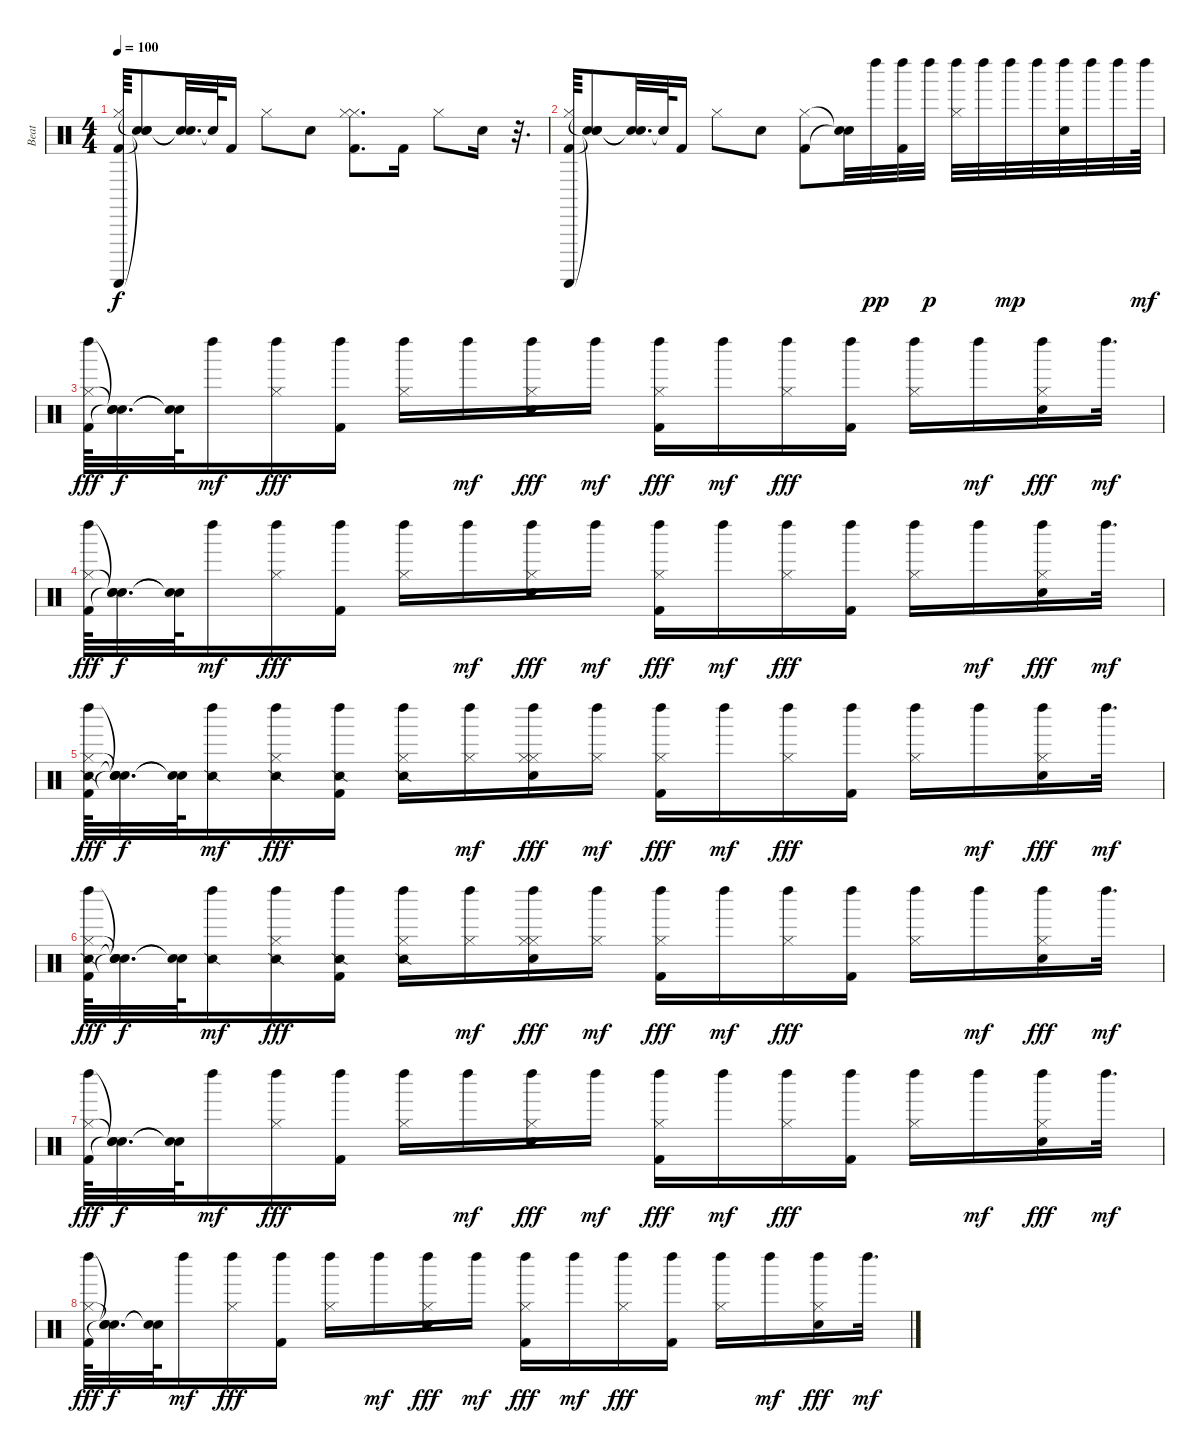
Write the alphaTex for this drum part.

\track ("Beat" "Beat") {instrument percussion}
\staff {score}
\articulation defaults
\ts (4 4)
\tempo 100
\clef neutral
\ks c
("Hi-Hat (closed)" "Kick (hit) 2" "Guiro (scrap-return)").64{dy f} ("Snare (hit)"{t} "Snare (hit)"{t} "Snare (hit)"{t}).8 ("Snare (hit)"{t} "Snare (hit)"{t}).32{d} "Snare (hit)"{t}.64 "Kick (hit) 2".16 "Hi-Hat (closed)".8 "Electric Snare (hit)".8 ("Hi-Hat (closed)" "Hi-Hat (closed)" "Kick (hit) 2").8{d} "Kick (hit) 2".16 "Hi-Hat (closed)".8 "Electric Snare (hit)".16 r.32{d} |
("Hi-Hat (closed)" "Kick (hit) 2" "Guiro (scrap-return)").64 ("Snare (hit)"{t} "Snare (hit)"{t} "Snare (hit)"{t}).8 ("Snare (hit)"{t} "Snare (hit)"{t}).32{d} "Snare (hit)"{t}.64 "Kick (hit) 2".16 "Hi-Hat (closed)".8 "Electric Snare (hit)".8 ("Hi-Hat (closed)" "Kick (hit) 2").8 ("Snare (hit)"{t} "Snare (hit)"{t}).32 "Left Maraca (hit)".32{dy pp} ("Left Maraca (hit)" "Kick (hit) 2").32 "Left Maraca (hit)".32{dy p} ("Left Maraca (hit)" "Hi-Hat (closed)").32 "Left Maraca (hit)".32 "Left Maraca (hit)".32{dy mp} "Left Maraca (hit)".32 ("Left Maraca (hit)" "Electric Snare (hit)").32 "Left Maraca (hit)".32 "Left Maraca (hit)".32 "Left Maraca (hit)".64{dy mf} |
("Left Maraca (hit)" "Hi-Hat (closed)" "Kick (hit) 2").64{dy fff} ("Snare (hit)"{t} "Snare (hit)"{t} "Snare (hit)"{t}).32{d dy f} ("Snare (hit)"{t} "Snare (hit)"{t}).64 "Left Maraca (hit)".16{dy mf} ("Left Maraca (hit)" "Hi-Hat (closed)").16{dy fff} ("Left Maraca (hit)" "Kick (hit) 2").16 ("Left Maraca (hit)" "Hi-Hat (closed)").16 "Left Maraca (hit)".16{dy mf} ("Left Maraca (hit)" "Hi-Hat (closed)" "Electric Snare (hit)").16{dy fff} "Left Maraca (hit)".16{dy mf} ("Left Maraca (hit)" "Hi-Hat (closed)" "Kick (hit) 2").16{dy fff} "Left Maraca (hit)".16{dy mf} ("Left Maraca (hit)" "Hi-Hat (closed)").16{dy fff} ("Left Maraca (hit)" "Kick (hit) 2").16 ("Left Maraca (hit)" "Hi-Hat (closed)").16 "Left Maraca (hit)".16{dy mf} ("Left Maraca (hit)" "Hi-Hat (closed)" "Electric Snare (hit)").16{dy fff} "Left Maraca (hit)".32{d dy mf} |
("Left Maraca (hit)" "Hi-Hat (closed)" "Kick (hit) 2").64{dy fff} ("Snare (hit)"{t} "Snare (hit)"{t} "Snare (hit)"{t}).32{d dy f} ("Snare (hit)"{t} "Snare (hit)"{t}).64 "Left Maraca (hit)".16{dy mf} ("Left Maraca (hit)" "Hi-Hat (closed)").16{dy fff} ("Left Maraca (hit)" "Kick (hit) 2").16 ("Left Maraca (hit)" "Hi-Hat (closed)").16 "Left Maraca (hit)".16{dy mf} ("Left Maraca (hit)" "Hi-Hat (closed)" "Electric Snare (hit)").16{dy fff} "Left Maraca (hit)".16{dy mf} ("Left Maraca (hit)" "Hi-Hat (closed)" "Kick (hit) 2").16{dy fff} "Left Maraca (hit)".16{dy mf} ("Left Maraca (hit)" "Hi-Hat (closed)").16{dy fff} ("Left Maraca (hit)" "Kick (hit) 2").16 ("Left Maraca (hit)" "Hi-Hat (closed)").16 "Left Maraca (hit)".16{dy mf} ("Left Maraca (hit)" "Hi-Hat (closed)" "Electric Snare (hit)").16{dy fff} "Left Maraca (hit)".32{d dy mf} |
("Snare (side stick) 2" "Left Maraca (hit)" "Hi-Hat (closed)" "Kick (hit) 2").64{dy fff} ("Snare (hit)"{t} "Snare (hit)"{t} "Snare (hit)"{t} "Snare (hit)"{t}).32{d dy f} ("Snare (hit)"{t} "Snare (hit)"{t}).64 ("Snare (side stick) 2" "Left Maraca (hit)").16{dy mf} ("Snare (side stick) 2" "Left Maraca (hit)" "Hi-Hat (closed)").16{dy fff} ("Snare (side stick) 2" "Left Maraca (hit)" "Kick (hit) 2").16 ("Snare (side stick) 2" "Left Maraca (hit)" "Hi-Hat (closed)").16 ("Hi-Hat (closed)" "Left Maraca (hit)").16{dy mf} ("Hi-Hat (closed)" "Left Maraca (hit)" "Hi-Hat (closed)" "Electric Snare (hit)").16{dy fff} ("Hi-Hat (closed)" "Left Maraca (hit)").16{dy mf} ("Left Maraca (hit)" "Hi-Hat (closed)" "Kick (hit) 2").16{dy fff} "Left Maraca (hit)".16{dy mf} ("Left Maraca (hit)" "Hi-Hat (closed)").16{dy fff} ("Left Maraca (hit)" "Kick (hit) 2").16 ("Left Maraca (hit)" "Hi-Hat (closed)").16 "Left Maraca (hit)".16{dy mf} ("Left Maraca (hit)" "Hi-Hat (closed)" "Electric Snare (hit)").16{dy fff} "Left Maraca (hit)".32{d dy mf} |
("Snare (side stick) 2" "Left Maraca (hit)" "Hi-Hat (closed)" "Kick (hit) 2").64{dy fff} ("Snare (hit)"{t} "Snare (hit)"{t} "Snare (hit)"{t} "Snare (hit)"{t}).32{d dy f} ("Snare (hit)"{t} "Snare (hit)"{t}).64 ("Snare (side stick) 2" "Left Maraca (hit)").16{dy mf} ("Snare (side stick) 2" "Left Maraca (hit)" "Hi-Hat (closed)").16{dy fff} ("Snare (side stick) 2" "Left Maraca (hit)" "Kick (hit) 2").16 ("Snare (side stick) 2" "Left Maraca (hit)" "Hi-Hat (closed)").16 ("Hi-Hat (closed)" "Left Maraca (hit)").16{dy mf} ("Hi-Hat (closed)" "Left Maraca (hit)" "Hi-Hat (closed)" "Electric Snare (hit)").16{dy fff} ("Hi-Hat (closed)" "Left Maraca (hit)").16{dy mf} ("Left Maraca (hit)" "Hi-Hat (closed)" "Kick (hit) 2").16{dy fff} "Left Maraca (hit)".16{dy mf} ("Left Maraca (hit)" "Hi-Hat (closed)").16{dy fff} ("Left Maraca (hit)" "Kick (hit) 2").16 ("Left Maraca (hit)" "Hi-Hat (closed)").16 "Left Maraca (hit)".16{dy mf} ("Left Maraca (hit)" "Hi-Hat (closed)" "Electric Snare (hit)").16{dy fff} "Left Maraca (hit)".32{d dy mf} |
("Left Maraca (hit)" "Hi-Hat (closed)" "Kick (hit) 2").64{dy fff} ("Snare (hit)"{t} "Snare (hit)"{t} "Snare (hit)"{t}).32{d dy f} ("Snare (hit)"{t} "Snare (hit)"{t}).64 "Left Maraca (hit)".16{dy mf} ("Left Maraca (hit)" "Hi-Hat (closed)").16{dy fff} ("Left Maraca (hit)" "Kick (hit) 2").16 ("Left Maraca (hit)" "Hi-Hat (closed)").16 "Left Maraca (hit)".16{dy mf} ("Left Maraca (hit)" "Hi-Hat (closed)" "Electric Snare (hit)").16{dy fff} "Left Maraca (hit)".16{dy mf} ("Left Maraca (hit)" "Hi-Hat (closed)" "Kick (hit) 2").16{dy fff} "Left Maraca (hit)".16{dy mf} ("Left Maraca (hit)" "Hi-Hat (closed)").16{dy fff} ("Left Maraca (hit)" "Kick (hit) 2").16 ("Left Maraca (hit)" "Hi-Hat (closed)").16 "Left Maraca (hit)".16{dy mf} ("Left Maraca (hit)" "Hi-Hat (closed)" "Electric Snare (hit)").16{dy fff} "Left Maraca (hit)".32{d dy mf} |
("Left Maraca (hit)" "Hi-Hat (closed)" "Kick (hit) 2").64{dy fff} ("Snare (hit)"{t} "Snare (hit)"{t} "Snare (hit)"{t}).32{d dy f} ("Snare (hit)"{t} "Snare (hit)"{t}).64 "Left Maraca (hit)".16{dy mf} ("Left Maraca (hit)" "Hi-Hat (closed)").16{dy fff} ("Left Maraca (hit)" "Kick (hit) 2").16 ("Left Maraca (hit)" "Hi-Hat (closed)").16 "Left Maraca (hit)".16{dy mf} ("Left Maraca (hit)" "Hi-Hat (closed)" "Electric Snare (hit)").16{dy fff} "Left Maraca (hit)".16{dy mf} ("Left Maraca (hit)" "Hi-Hat (closed)" "Kick (hit) 2").16{dy fff} "Left Maraca (hit)".16{dy mf} ("Left Maraca (hit)" "Hi-Hat (closed)").16{dy fff} ("Left Maraca (hit)" "Kick (hit) 2").16 ("Left Maraca (hit)" "Hi-Hat (closed)").16 "Left Maraca (hit)".16{dy mf} ("Left Maraca (hit)" "Hi-Hat (closed)" "Electric Snare (hit)").16{dy fff} "Left Maraca (hit)".32{d dy mf}
